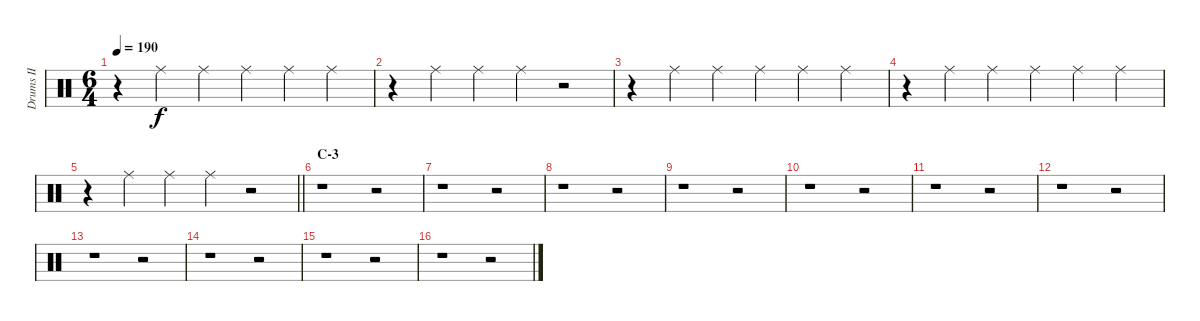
\track ("Drums II" "Drums II") {instrument percussion}
\staff {score}
\articulation defaults
\ts (6 4)
\tempo 190
\clef neutral
\ks c
r.4{dy f} "Ride (middle)".4 "Ride (middle)".4 "Ride (middle)".4 "Ride (middle)".4 "Ride (middle)".4 |
r.4 "Ride (middle)".4 "Ride (middle)".4 "Ride (middle)".4 r.2 |
r.4 "Ride (middle)".4 "Ride (middle)".4 "Ride (middle)".4 "Ride (middle)".4 "Ride (middle)".4 |
r.4 "Ride (middle)".4 "Ride (middle)".4 "Ride (middle)".4 "Ride (middle)".4 "Ride (middle)".4 |
\barLineRight lightlight
r.4 "Ride (middle)".4 "Ride (middle)".4 "Ride (middle)".4 r.2 |
\section ("" "C-3")
r.1 r.2 |
r.1 r.2 |
r.1 r.2 |
r.1 r.2 |
r.1 r.2 |
r.1 r.2 |
r.1 r.2 |
r.1 r.2 |
r.1 r.2 |
r.1 r.2 |
r.1 r.2
